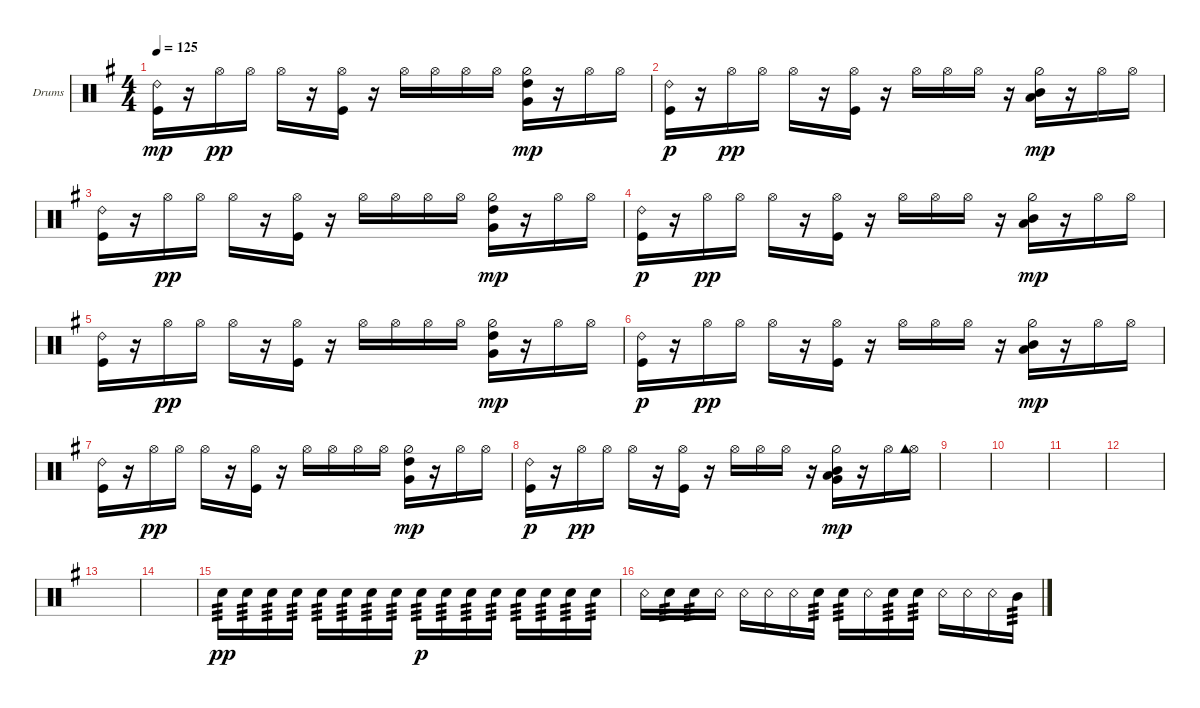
\bracketExtendMode groupsimilarinstruments
\firstSystemTrackNameOrientation horizontal
\otherSystemsTrackNameOrientation horizontal
\track ("Drumkit" "Drums") {instrument percussion}
\staff {score}
\articulation defaults
\ts (4 4)
\tempo 125
\clef neutral
\ks g
("Kick (hit)" "Ride (bell) 2").16{dy mp} r.16 "Hi-Hat (open)".16{dy pp} "Hi-Hat (open)".16 "Hi-Hat (open)".16 r.16 ("Kick (hit)" "Hi-Hat (open)").16 r.16 "Hi-Hat (open)".16 "Hi-Hat (open)".16 "Hi-Hat (open)".16 "Hi-Hat (open)".16 ("Very Low Tom (hit)" "High Tom (hit)" "Hi-Hat (half)").16{dy mp} r.16 "Hi-Hat (open)".16 "Hi-Hat (open)".16 |
("Kick (hit)" "Ride (bell) 2").16{dy p} r.16 "Hi-Hat (open)".16{dy pp} "Hi-Hat (open)".16 "Hi-Hat (open)".16 r.16 ("Kick (hit)" "Hi-Hat (open)").16 r.16 "Hi-Hat (open)".16 "Hi-Hat (open)".16 "Hi-Hat (open)".16 r.16 ("Low Tom (hit)" "Mid Tom (hit)" "Hi-Hat (half)").16{dy mp} r.16 "Hi-Hat (open)".16 "Hi-Hat (open)".16 |
("Kick (hit)" "Ride (bell) 2").16 r.16 "Hi-Hat (open)".16{dy pp} "Hi-Hat (open)".16 "Hi-Hat (open)".16 r.16 ("Kick (hit)" "Hi-Hat (open)").16 r.16 "Hi-Hat (open)".16 "Hi-Hat (open)".16 "Hi-Hat (open)".16 "Hi-Hat (open)".16 ("Very Low Tom (hit)" "High Tom (hit)" "Hi-Hat (half)").16{dy mp} r.16 "Hi-Hat (open)".16 "Hi-Hat (open)".16 |
("Kick (hit)" "Ride (bell) 2").16{dy p} r.16 "Hi-Hat (open)".16{dy pp} "Hi-Hat (open)".16 "Hi-Hat (open)".16 r.16 ("Kick (hit)" "Hi-Hat (open)").16 r.16 "Hi-Hat (open)".16 "Hi-Hat (open)".16 "Hi-Hat (open)".16 r.16 ("Low Tom (hit)" "Mid Tom (hit)" "Hi-Hat (half)").16{dy mp} r.16 "Hi-Hat (open)".16 "Hi-Hat (open)".16 |
("Kick (hit)" "Ride (bell) 2").16 r.16 "Hi-Hat (open)".16{dy pp} "Hi-Hat (open)".16 "Hi-Hat (open)".16 r.16 ("Kick (hit)" "Hi-Hat (open)").16 r.16 "Hi-Hat (open)".16 "Hi-Hat (open)".16 "Hi-Hat (open)".16 "Hi-Hat (open)".16 ("Very Low Tom (hit)" "High Tom (hit)" "Hi-Hat (half)").16{dy mp} r.16 "Hi-Hat (open)".16 "Hi-Hat (open)".16 |
("Kick (hit)" "Ride (bell) 2").16{dy p} r.16 "Hi-Hat (open)".16{dy pp} "Hi-Hat (open)".16 "Hi-Hat (open)".16 r.16 ("Kick (hit)" "Hi-Hat (open)").16 r.16 "Hi-Hat (open)".16 "Hi-Hat (open)".16 "Hi-Hat (open)".16 r.16 ("Low Tom (hit)" "Mid Tom (hit)" "Hi-Hat (half)").16{dy mp} r.16 "Hi-Hat (open)".16 "Hi-Hat (open)".16 |
("Kick (hit)" "Ride (bell) 2").16 r.16 "Hi-Hat (open)".16{dy pp} "Hi-Hat (open)".16 "Hi-Hat (open)".16 r.16 ("Kick (hit)" "Hi-Hat (open)").16 r.16 "Hi-Hat (open)".16 "Hi-Hat (open)".16 "Hi-Hat (open)".16 "Hi-Hat (open)".16 ("Very Low Tom (hit)" "High Tom (hit)" "Hi-Hat (half)").16{dy mp} r.16 "Hi-Hat (open)".16 "Hi-Hat (open)".16 |
("Kick (hit)" "Ride (bell) 2").16{dy p} r.16 "Hi-Hat (open)".16{dy pp} "Hi-Hat (open)".16 "Hi-Hat (open)".16 r.16 ("Kick (hit)" "Hi-Hat (open)").16 r.16 "Hi-Hat (open)".16 "Hi-Hat (open)".16 "Hi-Hat (open)".16 r.16 ("Low Tom (hit)" "Mid Tom (hit)" "Hi-Hat (half)" "Very Low Tom (hit)").16{dy mp} r.16 "Hi-Hat (open)".16 ("Hi-Hat (open)" "Cowbell high (hit)").16 |
|
|
|
|
|
|
"Snare (hit) 2".16{tp 3 dy pp} "Snare (hit) 2".16{tp 3} "Snare (hit) 2".16{tp 3} "Snare (hit) 2".16{tp 3} "Snare (hit) 2".16{tp 3} "Snare (hit) 2".16{tp 3} "Snare (hit) 2".16{tp 3} "Snare (hit) 2".16{tp 3} "Snare (hit) 2".16{tp 3 dy p} "Snare (hit) 2".16{tp 3} "Snare (hit) 2".16{tp 3} "Snare (hit) 2".16{tp 3} "Snare (hit) 2".16{tp 3} "Snare (hit) 2".16{tp 3} "Snare (hit) 2".16{tp 3} "Snare (hit) 2".16{tp 3} |
"Snare (rim shot)".16 "Snare (hit) 2".16{tp 3} "Snare (hit) 2".16{tp 3} "Snare (rim shot)".16 "Snare (rim shot)".16 "Snare (rim shot)".16 "Snare (rim shot)".16 "Snare (hit) 2".16{tp 3} "Snare (hit) 2".16{tp 3} "Snare (rim shot)".16 "Snare (hit) 2".16{tp 3} "Snare (hit) 2".16{tp 3} "Snare (rim shot)".16 "Snare (rim shot)".16 "Snare (rim shot)".16 "Mid Tom (hit)".16{tp 3}
